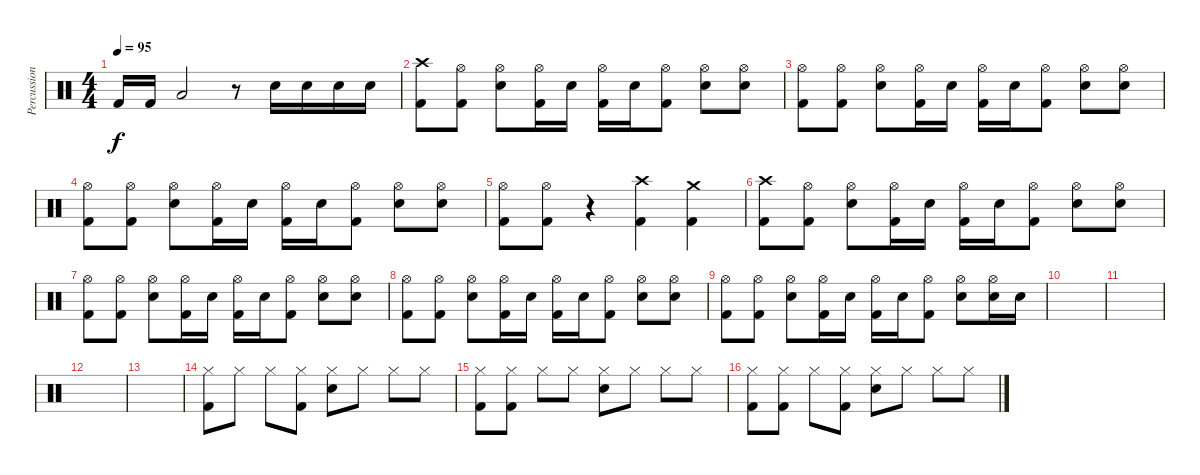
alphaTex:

\track ("Percussion" "Percussion") {instrument percussion}
\staff {score}
\articulation defaults
\ts (4 4)
\tempo 95
\clef neutral
\ks c "Kick (hit) 2".16{dy f} "Kick (hit) 2".16 "Low Tom (hit)".2
r.8 "Snare (hit) 2".16 "Snare (hit) 2".16 "Snare (hit) 2".16 "Snare (hit) 2".16 |
("Kick (hit) 2" "Crash high (hit)").8 ("Kick (hit) 2" "Hi-Hat (open)").8 ("Snare (hit) 2" "Hi-Hat (open)").8 ("Kick (hit) 2" "Hi-Hat (open)").16 "Snare (hit) 2".16 ("Kick (hit) 2" "Hi-Hat (open)").16 "Snare (hit) 2".16 ("Kick (hit) 2" "Hi-Hat (open)").8 ("Snare (hit) 2" "Hi-Hat (open)").8 ("Snare (hit) 2" "Hi-Hat (open)").8 |
("Kick (hit) 2" "Hi-Hat (open)").8 ("Kick (hit) 2" "Hi-Hat (open)").8 ("Snare (hit) 2" "Hi-Hat (open)").8 ("Kick (hit) 2" "Hi-Hat (open)").16 "Snare (hit) 2".16 ("Kick (hit) 2" "Hi-Hat (open)").16 "Snare (hit) 2".16 ("Kick (hit) 2" "Hi-Hat (open)").8 ("Snare (hit) 2" "Hi-Hat (open)").8 ("Snare (hit) 2" "Hi-Hat (open)").8 |
("Kick (hit) 2" "Hi-Hat (open)").8 ("Kick (hit) 2" "Hi-Hat (open)").8 ("Snare (hit) 2" "Hi-Hat (open)").8 ("Kick (hit) 2" "Hi-Hat (open)").16 "Snare (hit) 2".16 ("Kick (hit) 2" "Hi-Hat (open)").16 "Snare (hit) 2".16 ("Kick (hit) 2" "Hi-Hat (open)").8 ("Snare (hit) 2" "Hi-Hat (open)").8 ("Snare (hit) 2" "Hi-Hat (open)").8 |
("Kick (hit) 2" "Hi-Hat (open)").8 ("Kick (hit) 2" "Hi-Hat (open)").8 r.4 ("Kick (hit) 2" "Crash high (hit)").4 ("Kick (hit) 2" "Crash medium (hit)").4 |
("Kick (hit) 2" "Crash high (hit)").8 ("Kick (hit) 2" "Hi-Hat (open)").8 ("Snare (hit) 2" "Hi-Hat (open)").8 ("Kick (hit) 2" "Hi-Hat (open)").16 "Snare (hit) 2".16 ("Kick (hit) 2" "Hi-Hat (open)").16 "Snare (hit) 2".16 ("Kick (hit) 2" "Hi-Hat (open)").8 ("Snare (hit) 2" "Hi-Hat (open)").8 ("Snare (hit) 2" "Hi-Hat (open)").8 |
("Kick (hit) 2" "Hi-Hat (open)").8 ("Kick (hit) 2" "Hi-Hat (open)").8 ("Snare (hit) 2" "Hi-Hat (open)").8 ("Kick (hit) 2" "Hi-Hat (open)").16 "Snare (hit) 2".16 ("Kick (hit) 2" "Hi-Hat (open)").16 "Snare (hit) 2".16 ("Kick (hit) 2" "Hi-Hat (open)").8 ("Snare (hit) 2" "Hi-Hat (open)").8 ("Snare (hit) 2" "Hi-Hat (open)").8 |
("Kick (hit) 2" "Hi-Hat (open)").8 ("Kick (hit) 2" "Hi-Hat (open)").8 ("Snare (hit) 2" "Hi-Hat (open)").8 ("Kick (hit) 2" "Hi-Hat (open)").16 "Snare (hit) 2".16 ("Kick (hit) 2" "Hi-Hat (open)").16 "Snare (hit) 2".16 ("Kick (hit) 2" "Hi-Hat (open)").8 ("Snare (hit) 2" "Hi-Hat (open)").8 ("Snare (hit) 2" "Hi-Hat (open)").8 |
("Kick (hit) 2" "Hi-Hat (open)").8 ("Kick (hit) 2" "Hi-Hat (open)").8 ("Snare (hit) 2" "Hi-Hat (open)").8 ("Kick (hit) 2" "Hi-Hat (open)").16 "Snare (hit) 2".16 ("Kick (hit) 2" "Hi-Hat (open)").16 "Snare (hit) 2".16 ("Kick (hit) 2" "Hi-Hat (open)").8 ("Snare (hit) 2" "Hi-Hat (open)").8 ("Snare (hit) 2" "Hi-Hat (open)").16 "Snare (hit) 2".16 |
|
|
|
|
("Kick (hit) 2" "Hi-Hat (closed)").8 "Hi-Hat (closed)".8 "Hi-Hat (closed)".8 ("Kick (hit) 2" "Hi-Hat (closed)").8 ("Snare (hit) 2" "Hi-Hat (closed)").8 "Hi-Hat (closed)".8 "Hi-Hat (closed)".8 "Hi-Hat (closed)".8 |
("Kick (hit) 2" "Hi-Hat (closed)").8 ("Kick (hit) 2" "Hi-Hat (closed)").8 "Hi-Hat (closed)".8 "Hi-Hat (closed)".8 ("Snare (hit) 2" "Hi-Hat (closed)").8 "Hi-Hat (closed)".8 "Hi-Hat (closed)".8 "Hi-Hat (closed)".8 |
("Kick (hit) 2" "Hi-Hat (closed)").8 ("Kick (hit) 2" "Hi-Hat (closed)").8 "Hi-Hat (closed)".8 ("Kick (hit) 2" "Hi-Hat (closed)").8 ("Snare (hit) 2" "Hi-Hat (closed)").8 "Hi-Hat (closed)".8 "Hi-Hat (closed)".8 "Hi-Hat (closed)".8
